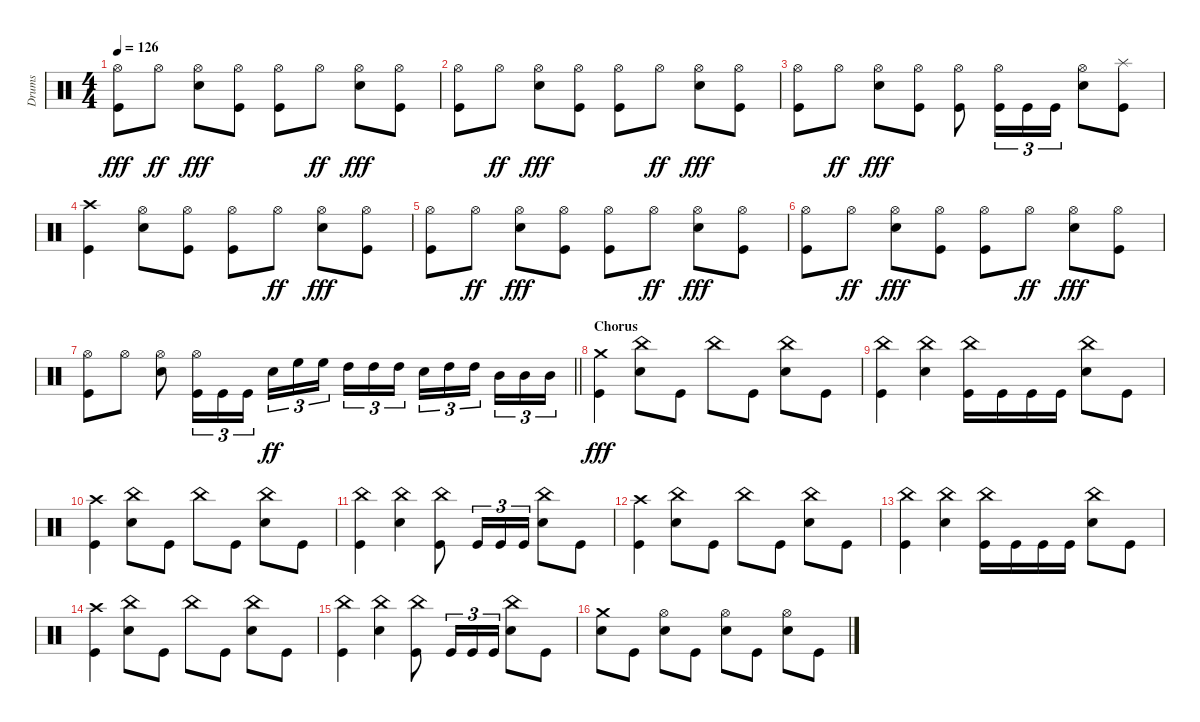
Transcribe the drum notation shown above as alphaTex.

\track ("Drums" "Drums") {instrument percussion}
\staff {score}
\articulation defaults
\ts (4 4)
\tempo 126
\clef neutral
\ks c
("Hi-Hat (open)" "Kick (hit)").8{dy fff} "Hi-Hat (open)".8{dy ff} ("Hi-Hat (open)" "Snare (hit) 2").8{dy fff} ("Hi-Hat (open)" "Kick (hit)").8 ("Hi-Hat (open)" "Kick (hit)").8 "Hi-Hat (open)".8{dy ff} ("Hi-Hat (open)" "Snare (hit) 2").8{dy fff} ("Hi-Hat (open)" "Kick (hit)").8 |
("Hi-Hat (open)" "Kick (hit)").8 "Hi-Hat (open)".8{dy ff} ("Hi-Hat (open)" "Snare (hit) 2").8{dy fff} ("Hi-Hat (open)" "Kick (hit)").8 ("Hi-Hat (open)" "Kick (hit)").8 "Hi-Hat (open)".8{dy ff} ("Hi-Hat (open)" "Snare (hit) 2").8{dy fff} ("Hi-Hat (open)" "Kick (hit)").8 |
("Hi-Hat (open)" "Kick (hit)").8 "Hi-Hat (open)".8{dy ff} ("Hi-Hat (open)" "Snare (hit) 2").8{dy fff} ("Hi-Hat (open)" "Kick (hit)").8 ("Hi-Hat (open)" "Kick (hit)").8 ("Hi-Hat (open)" "Kick (hit)").16{tu (3 2)} "Kick (hit)".16{tu (3 2)} "Kick (hit)".16{tu (3 2)} ("Hi-Hat (open)" "Snare (hit) 2").8 ("Splash (hit)" "Kick (hit)").8 |
("Crash high (hit)" "Kick (hit)").4 ("Hi-Hat (open)" "Snare (hit) 2").8 ("Hi-Hat (open)" "Kick (hit)").8 ("Hi-Hat (open)" "Kick (hit)").8 "Hi-Hat (open)".8{dy ff} ("Hi-Hat (open)" "Snare (hit) 2").8{dy fff} ("Hi-Hat (open)" "Kick (hit)").8 |
("Hi-Hat (open)" "Kick (hit)").8 "Hi-Hat (open)".8{dy ff} ("Hi-Hat (open)" "Snare (hit) 2").8{dy fff} ("Hi-Hat (open)" "Kick (hit)").8 ("Hi-Hat (open)" "Kick (hit)").8 "Hi-Hat (open)".8{dy ff} ("Hi-Hat (open)" "Snare (hit) 2").8{dy fff} ("Hi-Hat (open)" "Kick (hit)").8 |
("Hi-Hat (open)" "Kick (hit)").8 "Hi-Hat (open)".8{dy ff} ("Hi-Hat (open)" "Snare (hit) 2").8{dy fff} ("Hi-Hat (open)" "Kick (hit)").8 ("Hi-Hat (open)" "Kick (hit)").8 "Hi-Hat (open)".8{dy ff} ("Hi-Hat (open)" "Snare (hit) 2").8{dy fff} ("Hi-Hat (open)" "Kick (hit)").8 |
\barLineRight lightlight
("Hi-Hat (open)" "Kick (hit)").8 "Hi-Hat (open)".8 ("Hi-Hat (open)" "Snare (hit) 2").8 ("Hi-Hat (open)" "Kick (hit)").16{tu (3 2)} "Kick (hit)".16{tu (3 2)} "Kick (hit)".16{tu (3 2)} "Snare (hit) 2".16{tu (3 2) dy ff} "High Floor Tom (hit)".16{tu (3 2)} "High Floor Tom (hit)".16{tu (3 2) beam splitsecondary} "High Tom (hit)".16{tu (3 2)} "High Tom (hit)".16{tu (3 2)} "High Tom (hit)".16{tu (3 2)} "Snare (hit) 2".16{tu (3 2)} "High Tom (hit)".16{tu (3 2)} "High Tom (hit)".16{tu (3 2) beam splitsecondary} "Mid Tom (hit)".16{tu (3 2)} "Mid Tom (hit)".16{tu (3 2)} "Mid Tom (hit)".16{tu (3 2)} |
\section ("" "Chorus")
("Crash medium (hit)" "Kick (hit)").4{dy fff} ("China (hit)" "Snare (hit) 2").8 "Kick (hit)".8 "China (hit)".8 "Kick (hit)".8 ("China (hit)" "Snare (hit) 2").8 "Kick (hit)".8 |
("China (hit)" "Kick (hit)").4 ("China (hit)" "Snare (hit) 2").4 ("China (hit)" "Kick (hit)").16 "Kick (hit)".16 "Kick (hit)".16 "Kick (hit)".16 ("China (hit)" "Snare (hit) 2").8 "Kick (hit)".8 |
("Crash high (hit)" "Kick (hit)").4 ("China (hit)" "Snare (hit) 2").8 "Kick (hit)".8 "China (hit)".8 "Kick (hit)".8 ("China (hit)" "Snare (hit) 2").8 "Kick (hit)".8 |
("China (hit)" "Kick (hit)").4 ("China (hit)" "Snare (hit) 2").4 ("China (hit)" "Kick (hit)").8 "Kick (hit)".16{tu (3 2)} "Kick (hit)".16{tu (3 2)} "Kick (hit)".16{tu (3 2)} ("China (hit)" "Snare (hit) 2").8 "Kick (hit)".8 |
("Crash high (hit)" "Kick (hit)").4 ("China (hit)" "Snare (hit) 2").8 "Kick (hit)".8 "China (hit)".8 "Kick (hit)".8 ("China (hit)" "Snare (hit) 2").8 "Kick (hit)".8 |
("China (hit)" "Kick (hit)").4 ("China (hit)" "Snare (hit) 2").4 ("China (hit)" "Kick (hit)").16 "Kick (hit)".16 "Kick (hit)".16 "Kick (hit)".16 ("China (hit)" "Snare (hit) 2").8 "Kick (hit)".8 |
("Crash high (hit)" "Kick (hit)").4 ("China (hit)" "Snare (hit) 2").8 "Kick (hit)".8 "China (hit)".8 "Kick (hit)".8 ("China (hit)" "Snare (hit) 2").8 "Kick (hit)".8 |
("China (hit)" "Kick (hit)").4 ("China (hit)" "Snare (hit) 2").4 ("China (hit)" "Kick (hit)").8 "Kick (hit)".16{tu (3 2)} "Kick (hit)".16{tu (3 2)} "Kick (hit)".16{tu (3 2)} ("China (hit)" "Snare (hit) 2").8 "Kick (hit)".8 |
("Crash medium (hit)" "Snare (hit) 2").8 "Kick (hit)".8 ("Hi-Hat (open)" "Snare (hit) 2").8 "Kick (hit)".8 ("Hi-Hat (open)" "Snare (hit) 2").8 "Kick (hit)".8 ("Hi-Hat (open)" "Snare (hit) 2").8 "Kick (hit)".8
